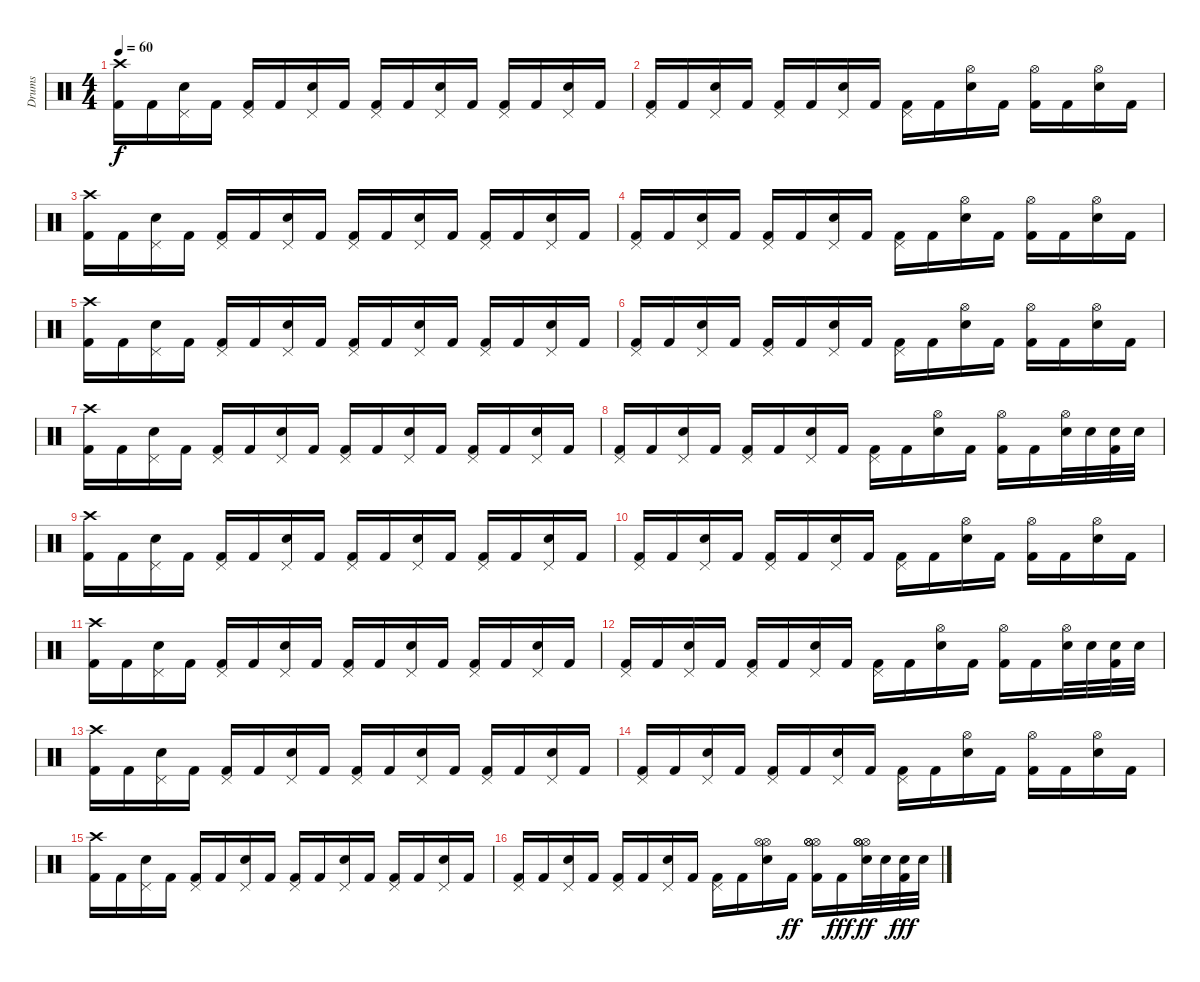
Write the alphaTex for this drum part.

\track ("Drums" "Drums") {instrument percussion}
\staff {score}
\articulation defaults
\ts (4 4)
\tempo 60
\clef neutral
\ks c
("Crash high (hit)" "Kick (hit) 2").16{dy f} "Kick (hit) 2".16 ("Pedal Hi-Hat (hit)" "Snare (hit) 2").16 "Kick (hit) 2".16 ("Pedal Hi-Hat (hit)" "Kick (hit) 2").16 "Kick (hit) 2".16 ("Pedal Hi-Hat (hit)" "Snare (hit) 2").16 "Kick (hit) 2".16 ("Pedal Hi-Hat (hit)" "Kick (hit) 2").16 "Kick (hit) 2".16 ("Pedal Hi-Hat (hit)" "Snare (hit) 2").16 "Kick (hit) 2".16 ("Pedal Hi-Hat (hit)" "Kick (hit) 2").16 "Kick (hit) 2".16 ("Pedal Hi-Hat (hit)" "Snare (hit) 2").16 "Kick (hit) 2".16 |
("Pedal Hi-Hat (hit)" "Kick (hit) 2").16 "Kick (hit) 2".16 ("Pedal Hi-Hat (hit)" "Snare (hit) 2").16 "Kick (hit) 2".16 ("Pedal Hi-Hat (hit)" "Kick (hit) 2").16 "Kick (hit) 2".16 ("Pedal Hi-Hat (hit)" "Snare (hit) 2").16 "Kick (hit) 2".16 ("Pedal Hi-Hat (hit)" "Kick (hit) 2").16 "Kick (hit) 2".16 ("Hi-Hat (open)" "Snare (hit) 2").16 "Kick (hit) 2".16 ("Hi-Hat (open)" "Kick (hit) 2").16 "Kick (hit) 2".16 ("Hi-Hat (open)" "Snare (hit) 2").16 "Kick (hit) 2".16 |
("Crash high (hit)" "Kick (hit) 2").16 "Kick (hit) 2".16 ("Pedal Hi-Hat (hit)" "Snare (hit) 2").16 "Kick (hit) 2".16 ("Pedal Hi-Hat (hit)" "Kick (hit) 2").16 "Kick (hit) 2".16 ("Pedal Hi-Hat (hit)" "Snare (hit) 2").16 "Kick (hit) 2".16 ("Pedal Hi-Hat (hit)" "Kick (hit) 2").16 "Kick (hit) 2".16 ("Pedal Hi-Hat (hit)" "Snare (hit) 2").16 "Kick (hit) 2".16 ("Pedal Hi-Hat (hit)" "Kick (hit) 2").16 "Kick (hit) 2".16 ("Pedal Hi-Hat (hit)" "Snare (hit) 2").16 "Kick (hit) 2".16 |
("Pedal Hi-Hat (hit)" "Kick (hit) 2").16 "Kick (hit) 2".16 ("Pedal Hi-Hat (hit)" "Snare (hit) 2").16 "Kick (hit) 2".16 ("Pedal Hi-Hat (hit)" "Kick (hit) 2").16 "Kick (hit) 2".16 ("Pedal Hi-Hat (hit)" "Snare (hit) 2").16 "Kick (hit) 2".16 ("Pedal Hi-Hat (hit)" "Kick (hit) 2").16 "Kick (hit) 2".16 ("Hi-Hat (open)" "Snare (hit) 2").16 "Kick (hit) 2".16 ("Hi-Hat (open)" "Kick (hit) 2").16 "Kick (hit) 2".16 ("Hi-Hat (open)" "Snare (hit) 2").16 "Kick (hit) 2".16 |
("Crash high (hit)" "Kick (hit) 2").16 "Kick (hit) 2".16 ("Pedal Hi-Hat (hit)" "Snare (hit) 2").16 "Kick (hit) 2".16 ("Pedal Hi-Hat (hit)" "Kick (hit) 2").16 "Kick (hit) 2".16 ("Pedal Hi-Hat (hit)" "Snare (hit) 2").16 "Kick (hit) 2".16 ("Pedal Hi-Hat (hit)" "Kick (hit) 2").16 "Kick (hit) 2".16 ("Pedal Hi-Hat (hit)" "Snare (hit) 2").16 "Kick (hit) 2".16 ("Pedal Hi-Hat (hit)" "Kick (hit) 2").16 "Kick (hit) 2".16 ("Pedal Hi-Hat (hit)" "Snare (hit) 2").16 "Kick (hit) 2".16 |
("Pedal Hi-Hat (hit)" "Kick (hit) 2").16 "Kick (hit) 2".16 ("Pedal Hi-Hat (hit)" "Snare (hit) 2").16 "Kick (hit) 2".16 ("Pedal Hi-Hat (hit)" "Kick (hit) 2").16 "Kick (hit) 2".16 ("Pedal Hi-Hat (hit)" "Snare (hit) 2").16 "Kick (hit) 2".16 ("Pedal Hi-Hat (hit)" "Kick (hit) 2").16 "Kick (hit) 2".16 ("Hi-Hat (open)" "Snare (hit) 2").16 "Kick (hit) 2".16 ("Hi-Hat (open)" "Kick (hit) 2").16 "Kick (hit) 2".16 ("Hi-Hat (open)" "Snare (hit) 2").16 "Kick (hit) 2".16 |
("Crash high (hit)" "Kick (hit) 2").16 "Kick (hit) 2".16 ("Pedal Hi-Hat (hit)" "Snare (hit) 2").16 "Kick (hit) 2".16 ("Pedal Hi-Hat (hit)" "Kick (hit) 2").16 "Kick (hit) 2".16 ("Pedal Hi-Hat (hit)" "Snare (hit) 2").16 "Kick (hit) 2".16 ("Pedal Hi-Hat (hit)" "Kick (hit) 2").16 "Kick (hit) 2".16 ("Pedal Hi-Hat (hit)" "Snare (hit) 2").16 "Kick (hit) 2".16 ("Pedal Hi-Hat (hit)" "Kick (hit) 2").16 "Kick (hit) 2".16 ("Pedal Hi-Hat (hit)" "Snare (hit) 2").16 "Kick (hit) 2".16 |
("Pedal Hi-Hat (hit)" "Kick (hit) 2").16 "Kick (hit) 2".16 ("Pedal Hi-Hat (hit)" "Snare (hit) 2").16 "Kick (hit) 2".16 ("Pedal Hi-Hat (hit)" "Kick (hit) 2").16 "Kick (hit) 2".16 ("Pedal Hi-Hat (hit)" "Snare (hit) 2").16 "Kick (hit) 2".16 ("Pedal Hi-Hat (hit)" "Kick (hit) 2").16 "Kick (hit) 2".16 ("Hi-Hat (open)" "Snare (hit) 2").16 "Kick (hit) 2".16 ("Hi-Hat (open)" "Kick (hit) 2").16 "Kick (hit) 2".16 ("Hi-Hat (open)" "Snare (hit) 2").32 "Snare (hit) 2".32 ("Snare (hit) 2" "Kick (hit) 2").32 "Snare (hit) 2".32 |
("Crash high (hit)" "Kick (hit) 2").16 "Kick (hit) 2".16 ("Pedal Hi-Hat (hit)" "Snare (hit) 2").16 "Kick (hit) 2".16 ("Pedal Hi-Hat (hit)" "Kick (hit) 2").16 "Kick (hit) 2".16 ("Pedal Hi-Hat (hit)" "Snare (hit) 2").16 "Kick (hit) 2".16 ("Pedal Hi-Hat (hit)" "Kick (hit) 2").16 "Kick (hit) 2".16 ("Pedal Hi-Hat (hit)" "Snare (hit) 2").16 "Kick (hit) 2".16 ("Pedal Hi-Hat (hit)" "Kick (hit) 2").16 "Kick (hit) 2".16 ("Pedal Hi-Hat (hit)" "Snare (hit) 2").16 "Kick (hit) 2".16 |
("Pedal Hi-Hat (hit)" "Kick (hit) 2").16 "Kick (hit) 2".16 ("Pedal Hi-Hat (hit)" "Snare (hit) 2").16 "Kick (hit) 2".16 ("Pedal Hi-Hat (hit)" "Kick (hit) 2").16 "Kick (hit) 2".16 ("Pedal Hi-Hat (hit)" "Snare (hit) 2").16 "Kick (hit) 2".16 ("Pedal Hi-Hat (hit)" "Kick (hit) 2").16 "Kick (hit) 2".16 ("Hi-Hat (open)" "Snare (hit) 2").16 "Kick (hit) 2".16 ("Hi-Hat (open)" "Kick (hit) 2").16 "Kick (hit) 2".16 ("Hi-Hat (open)" "Snare (hit) 2").16 "Kick (hit) 2".16 |
("Crash high (hit)" "Kick (hit) 2").16 "Kick (hit) 2".16 ("Pedal Hi-Hat (hit)" "Snare (hit) 2").16 "Kick (hit) 2".16 ("Pedal Hi-Hat (hit)" "Kick (hit) 2").16 "Kick (hit) 2".16 ("Pedal Hi-Hat (hit)" "Snare (hit) 2").16 "Kick (hit) 2".16 ("Pedal Hi-Hat (hit)" "Kick (hit) 2").16 "Kick (hit) 2".16 ("Pedal Hi-Hat (hit)" "Snare (hit) 2").16 "Kick (hit) 2".16 ("Pedal Hi-Hat (hit)" "Kick (hit) 2").16 "Kick (hit) 2".16 ("Pedal Hi-Hat (hit)" "Snare (hit) 2").16 "Kick (hit) 2".16 |
("Pedal Hi-Hat (hit)" "Kick (hit) 2").16 "Kick (hit) 2".16 ("Pedal Hi-Hat (hit)" "Snare (hit) 2").16 "Kick (hit) 2".16 ("Pedal Hi-Hat (hit)" "Kick (hit) 2").16 "Kick (hit) 2".16 ("Pedal Hi-Hat (hit)" "Snare (hit) 2").16 "Kick (hit) 2".16 ("Pedal Hi-Hat (hit)" "Kick (hit) 2").16 "Kick (hit) 2".16 ("Hi-Hat (open)" "Snare (hit) 2").16 "Kick (hit) 2".16 ("Hi-Hat (open)" "Kick (hit) 2").16 "Kick (hit) 2".16 ("Hi-Hat (open)" "Snare (hit) 2").32 "Snare (hit) 2".32 ("Snare (hit) 2" "Kick (hit) 2").32 "Snare (hit) 2".32 |
("Crash high (hit)" "Kick (hit) 2").16 "Kick (hit) 2".16 ("Pedal Hi-Hat (hit)" "Snare (hit) 2").16 "Kick (hit) 2".16 ("Pedal Hi-Hat (hit)" "Kick (hit) 2").16 "Kick (hit) 2".16 ("Pedal Hi-Hat (hit)" "Snare (hit) 2").16 "Kick (hit) 2".16 ("Pedal Hi-Hat (hit)" "Kick (hit) 2").16 "Kick (hit) 2".16 ("Pedal Hi-Hat (hit)" "Snare (hit) 2").16 "Kick (hit) 2".16 ("Pedal Hi-Hat (hit)" "Kick (hit) 2").16 "Kick (hit) 2".16 ("Pedal Hi-Hat (hit)" "Snare (hit) 2").16 "Kick (hit) 2".16 |
("Pedal Hi-Hat (hit)" "Kick (hit) 2").16 "Kick (hit) 2".16 ("Pedal Hi-Hat (hit)" "Snare (hit) 2").16 "Kick (hit) 2".16 ("Pedal Hi-Hat (hit)" "Kick (hit) 2").16 "Kick (hit) 2".16 ("Pedal Hi-Hat (hit)" "Snare (hit) 2").16 "Kick (hit) 2".16 ("Pedal Hi-Hat (hit)" "Kick (hit) 2").16 "Kick (hit) 2".16 ("Hi-Hat (open)" "Snare (hit) 2").16 "Kick (hit) 2".16 ("Hi-Hat (open)" "Kick (hit) 2").16 "Kick (hit) 2".16 ("Hi-Hat (open)" "Snare (hit) 2").16 "Kick (hit) 2".16 |
("Crash high (hit)" "Kick (hit) 2").16 "Kick (hit) 2".16 ("Pedal Hi-Hat (hit)" "Snare (hit) 2").16 "Kick (hit) 2".16 ("Pedal Hi-Hat (hit)" "Kick (hit) 2").16 "Kick (hit) 2".16 ("Pedal Hi-Hat (hit)" "Snare (hit) 2").16 "Kick (hit) 2".16 ("Pedal Hi-Hat (hit)" "Kick (hit) 2").16 "Kick (hit) 2".16 ("Pedal Hi-Hat (hit)" "Snare (hit) 2").16 "Kick (hit) 2".16 ("Pedal Hi-Hat (hit)" "Kick (hit) 2").16 "Kick (hit) 2".16 ("Pedal Hi-Hat (hit)" "Snare (hit) 2").16 "Kick (hit) 2".16 |
("Pedal Hi-Hat (hit)" "Kick (hit) 2").16 "Kick (hit) 2".16 ("Pedal Hi-Hat (hit)" "Snare (hit) 2").16 "Kick (hit) 2".16 ("Pedal Hi-Hat (hit)" "Kick (hit) 2").16 "Kick (hit) 2".16 ("Pedal Hi-Hat (hit)" "Snare (hit) 2").16 "Kick (hit) 2".16 ("Pedal Hi-Hat (hit)" "Kick (hit) 2").16 "Kick (hit) 2".16 ("Hi-Hat (open)" "Hi-Hat (open)" "Snare (hit) 2").16 "Kick (hit) 2".16{dy ff} ("Hi-Hat (open)" "Hi-Hat (open)" "Hi-Hat (open)" "Kick (hit) 2").16 "Kick (hit) 2".16{dy fff} ("Hi-Hat (open)" "Hi-Hat (open)" "Hi-Hat (open)" "Snare (hit) 2").32{dy ff} "Snare (hit) 2".32 ("Snare (hit) 2" "Kick (hit) 2").32{dy fff} "Snare (hit) 2".32
